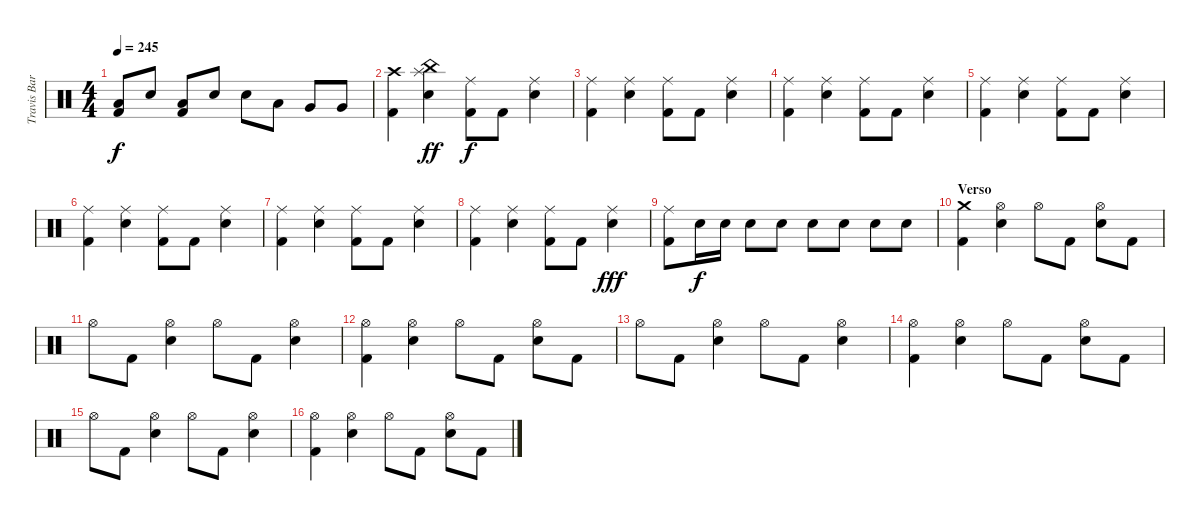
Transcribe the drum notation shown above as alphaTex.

\track ("Travis Barker - Batería" "Travis Bar") {instrument percussion}
\staff {score}
\articulation defaults
\ts (4 4)
\tempo 245
\clef neutral
\ks c
("Low Floor Tom (hit)" "Kick (hit) 2").8{dy f} "Electric Snare (hit)".8 ("Low Floor Tom (hit)" "Kick (hit) 2").8 "Electric Snare (hit)".8 "Electric Snare (hit)".8 "Low Tom (hit)".8 "Very Low Tom (hit)".8 "Very Low Tom (hit)".8 |
("Crash high (hit)" "Kick (hit) 2").4 ("China (hit)" "Electric Snare (hit)" "Splash (hit)").4{dy ff} ("Ride (middle)" "Kick (hit) 2").8{dy f} "Kick (hit) 2".8 ("Ride (middle)" "Electric Snare (hit)").4 |
("Ride (middle)" "Kick (hit) 2").4 ("Ride (middle)" "Electric Snare (hit)").4 ("Ride (middle)" "Kick (hit) 2").8 "Kick (hit) 2".8 ("Ride (middle)" "Electric Snare (hit)").4 |
("Ride (middle)" "Kick (hit) 2").4 ("Ride (middle)" "Electric Snare (hit)").4 ("Ride (middle)" "Kick (hit) 2").8 "Kick (hit) 2".8 ("Ride (middle)" "Electric Snare (hit)").4 |
("Ride (middle)" "Kick (hit) 2").4 ("Ride (middle)" "Electric Snare (hit)").4 ("Ride (middle)" "Kick (hit) 2").8 "Kick (hit) 2".8 ("Ride (middle)" "Electric Snare (hit)").4 |
("Ride (middle)" "Kick (hit) 2").4 ("Ride (middle)" "Electric Snare (hit)").4 ("Ride (middle)" "Kick (hit) 2").8 "Kick (hit) 2".8 ("Ride (middle)" "Electric Snare (hit)").4 |
("Ride (middle)" "Kick (hit) 2").4 ("Ride (middle)" "Electric Snare (hit)").4 ("Ride (middle)" "Kick (hit) 2").8 "Kick (hit) 2".8 ("Ride (middle)" "Electric Snare (hit)").4 |
("Ride (middle)" "Kick (hit) 2").4 ("Ride (middle)" "Electric Snare (hit)").4 ("Ride (middle)" "Kick (hit) 2").8 "Kick (hit) 2".8 ("Ride (middle)" "Electric Snare (hit)").4{dy fff} |
("Ride (middle)" "Kick (hit) 2").8 "Electric Snare (hit)".16{dy f} "Electric Snare (hit)".16 "Electric Snare (hit)".8 "Electric Snare (hit)".8 "Electric Snare (hit)".8 "Electric Snare (hit)".8 "Electric Snare (hit)".8 "Electric Snare (hit)".8 |
\section ("" "Verso")
("Crash medium (hit)" "Kick (hit) 2").4 ("Hi-Hat (open)" "Electric Snare (hit)").4 "Hi-Hat (open)".8 "Kick (hit) 2".8 ("Hi-Hat (open)" "Electric Snare (hit)").8 "Kick (hit) 2".8 |
"Hi-Hat (open)".8 "Kick (hit) 2".8 ("Hi-Hat (open)" "Electric Snare (hit)").4 "Hi-Hat (open)".8 "Kick (hit) 2".8 ("Hi-Hat (open)" "Electric Snare (hit)").4 |
("Hi-Hat (open)" "Kick (hit) 2").4 ("Hi-Hat (open)" "Electric Snare (hit)").4 "Hi-Hat (open)".8 "Kick (hit) 2".8 ("Hi-Hat (open)" "Electric Snare (hit)").8 "Kick (hit) 2".8 |
"Hi-Hat (open)".8 "Kick (hit) 2".8 ("Hi-Hat (open)" "Electric Snare (hit)").4 "Hi-Hat (open)".8 "Kick (hit) 2".8 ("Hi-Hat (open)" "Electric Snare (hit)").4 |
("Hi-Hat (open)" "Kick (hit) 2").4 ("Hi-Hat (open)" "Electric Snare (hit)").4 "Hi-Hat (open)".8 "Kick (hit) 2".8 ("Hi-Hat (open)" "Electric Snare (hit)").8 "Kick (hit) 2".8 |
"Hi-Hat (open)".8 "Kick (hit) 2".8 ("Hi-Hat (open)" "Electric Snare (hit)").4 "Hi-Hat (open)".8 "Kick (hit) 2".8 ("Hi-Hat (open)" "Electric Snare (hit)").4 |
("Hi-Hat (open)" "Kick (hit) 2").4 ("Hi-Hat (open)" "Electric Snare (hit)").4 "Hi-Hat (open)".8 "Kick (hit) 2".8 ("Hi-Hat (open)" "Electric Snare (hit)").8 "Kick (hit) 2".8
